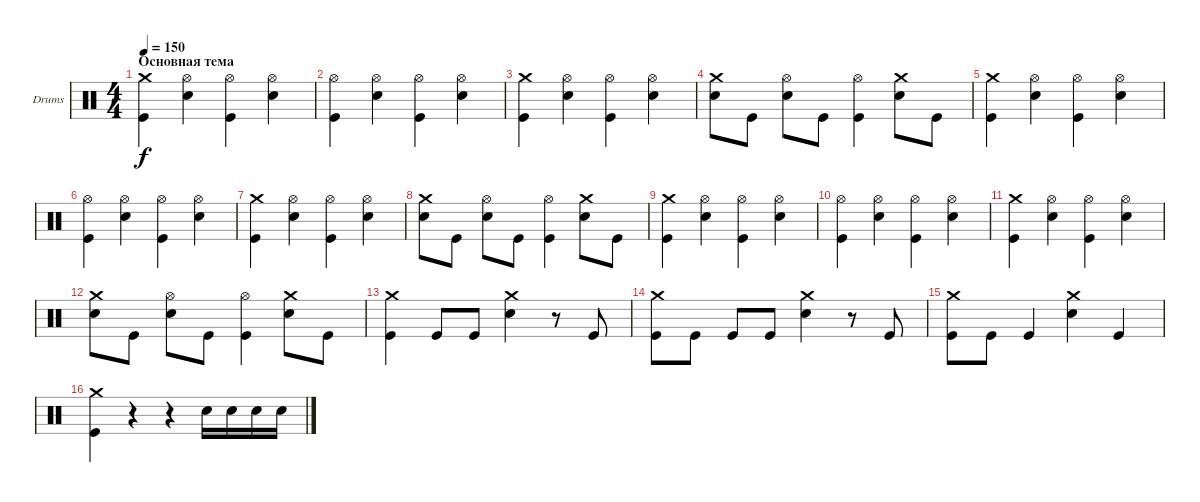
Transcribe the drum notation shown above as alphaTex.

\defaultSystemsLayout 4
\bracketExtendMode groupsimilarinstruments
\firstSystemTrackNameOrientation horizontal
\otherSystemsTrackNameOrientation horizontal
\track ("Drumkit" "Drums") {instrument percussion}
\staff {score}
\articulation defaults
\ts (4 4)
\section ("" "Основная тема")
\tempo 150
\clef neutral
\ks c
("Kick (hit)" "Crash medium (hit)").4{dy f} ("Hi-Hat (open)" "Snare (hit) 2").4 ("Hi-Hat (open)" "Kick (hit)").4 ("Hi-Hat (open)" "Snare (hit) 2").4 |
("Hi-Hat (open)" "Kick (hit)").4 ("Snare (hit) 2" "Hi-Hat (open)").4 ("Kick (hit)" "Hi-Hat (open)").4 ("Snare (hit) 2" "Hi-Hat (open)").4 |
("Kick (hit)" "Crash medium (hit)").4 ("Hi-Hat (open)" "Snare (hit) 2").4 ("Hi-Hat (open)" "Kick (hit)").4 ("Hi-Hat (open)" "Snare (hit) 2").4 |
("Crash medium (hit)" "Snare (hit) 2").8 "Kick (hit)".8 ("Snare (hit) 2" "Hi-Hat (open)").8 "Kick (hit)".8 ("Kick (hit)" "Hi-Hat (open)").4 ("Snare (hit) 2" "Crash medium (hit)").8 "Kick (hit)".8 |
("Kick (hit)" "Crash medium (hit)").4 ("Hi-Hat (open)" "Snare (hit) 2").4 ("Hi-Hat (open)" "Kick (hit)").4 ("Hi-Hat (open)" "Snare (hit) 2").4 |
("Hi-Hat (open)" "Kick (hit)").4 ("Snare (hit) 2" "Hi-Hat (open)").4 ("Kick (hit)" "Hi-Hat (open)").4 ("Snare (hit) 2" "Hi-Hat (open)").4 |
("Kick (hit)" "Crash medium (hit)").4 ("Hi-Hat (open)" "Snare (hit) 2").4 ("Hi-Hat (open)" "Kick (hit)").4 ("Hi-Hat (open)" "Snare (hit) 2").4 |
("Crash medium (hit)" "Snare (hit) 2").8 "Kick (hit)".8 ("Snare (hit) 2" "Hi-Hat (open)").8 "Kick (hit)".8 ("Kick (hit)" "Hi-Hat (open)").4 ("Snare (hit) 2" "Crash medium (hit)").8 "Kick (hit)".8 |
("Kick (hit)" "Crash medium (hit)").4 ("Hi-Hat (open)" "Snare (hit) 2").4 ("Hi-Hat (open)" "Kick (hit)").4 ("Hi-Hat (open)" "Snare (hit) 2").4 |
("Hi-Hat (open)" "Kick (hit)").4 ("Snare (hit) 2" "Hi-Hat (open)").4 ("Kick (hit)" "Hi-Hat (open)").4 ("Snare (hit) 2" "Hi-Hat (open)").4 |
("Kick (hit)" "Crash medium (hit)").4 ("Hi-Hat (open)" "Snare (hit) 2").4 ("Hi-Hat (open)" "Kick (hit)").4 ("Hi-Hat (open)" "Snare (hit) 2").4 |
("Crash medium (hit)" "Snare (hit) 2").8 "Kick (hit)".8 ("Snare (hit) 2" "Hi-Hat (open)").8 "Kick (hit)".8 ("Kick (hit)" "Hi-Hat (open)").4 ("Snare (hit) 2" "Crash medium (hit)").8 "Kick (hit)".8 |
("Crash medium (hit)" "Kick (hit)").4 "Kick (hit)".8 "Kick (hit)".8 ("Snare (hit) 2" "Crash medium (hit)").4 r.8 "Kick (hit)".8 |
("Kick (hit)" "Crash medium (hit)").8 "Kick (hit)".8 "Kick (hit)".8 "Kick (hit)".8 ("Snare (hit) 2" "Crash medium (hit)").4 r.8 "Kick (hit)".8 |
("Kick (hit)" "Crash medium (hit)").8 "Kick (hit)".8 "Kick (hit)".4 ("Snare (hit) 2" "Crash medium (hit)").4 "Kick (hit)".4 |
("Crash medium (hit)" "Kick (hit)").4 r.4 r.4 "Snare (hit) 2".16 "Snare (hit) 2".16 "Snare (hit) 2".16 "Snare (hit) 2".16
